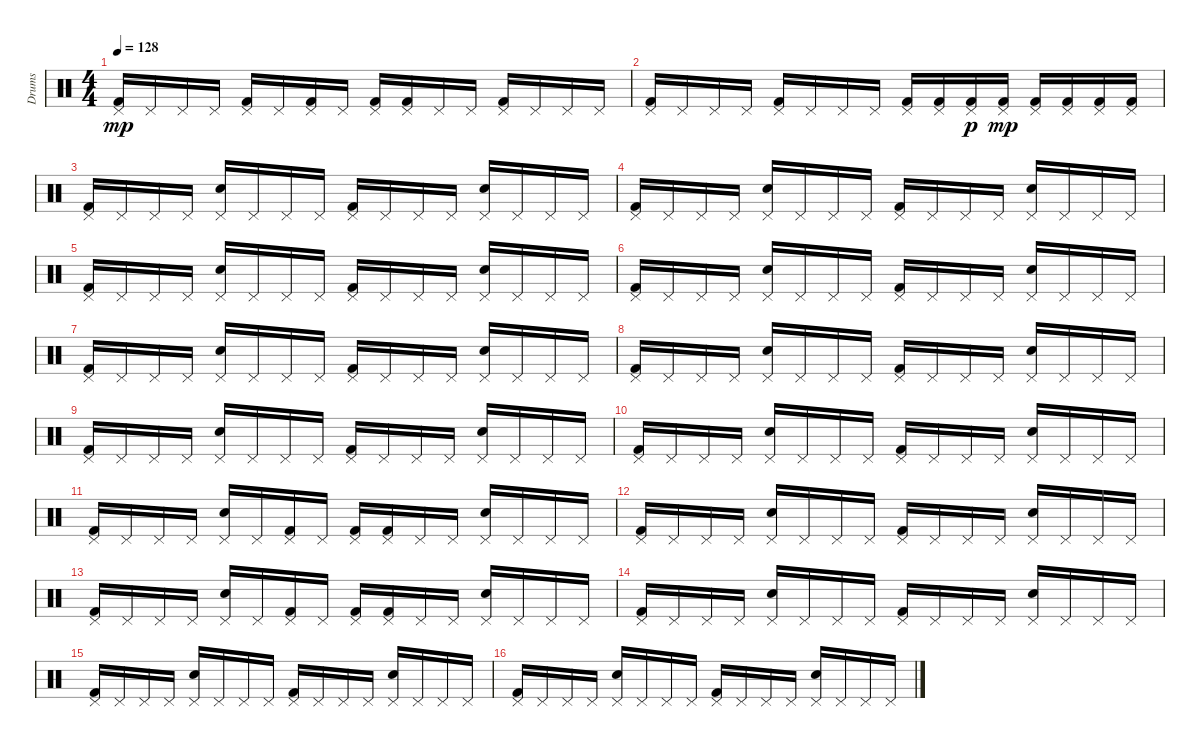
\track ("Drums" "Drums") {instrument percussion}
\staff {score}
\articulation defaults
\ts (4 4)
\tempo 128
\clef neutral
\ks c
("Pedal Hi-Hat (hit)" "Kick (hit) 2").16{dy mp} "Pedal Hi-Hat (hit)".16 "Pedal Hi-Hat (hit)".16 "Pedal Hi-Hat (hit)".16 ("Kick (hit) 2" "Pedal Hi-Hat (hit)").16 "Pedal Hi-Hat (hit)".16 ("Pedal Hi-Hat (hit)" "Kick (hit) 2").16 "Pedal Hi-Hat (hit)".16 ("Kick (hit) 2" "Pedal Hi-Hat (hit)").16 ("Kick (hit) 2" "Pedal Hi-Hat (hit)").16 "Pedal Hi-Hat (hit)".16 "Pedal Hi-Hat (hit)".16 ("Pedal Hi-Hat (hit)" "Kick (hit) 2").16 "Pedal Hi-Hat (hit)".16 "Pedal Hi-Hat (hit)".16 "Pedal Hi-Hat (hit)".16 |
("Kick (hit) 2" "Pedal Hi-Hat (hit)").16 "Pedal Hi-Hat (hit)".16 "Pedal Hi-Hat (hit)".16 "Pedal Hi-Hat (hit)".16 ("Kick (hit) 2" "Pedal Hi-Hat (hit)").16 "Pedal Hi-Hat (hit)".16 "Pedal Hi-Hat (hit)".16 "Pedal Hi-Hat (hit)".16 ("Pedal Hi-Hat (hit)" "Kick (hit) 2").16 ("Kick (hit) 2" "Pedal Hi-Hat (hit)").16 ("Pedal Hi-Hat (hit)" "Kick (hit) 2").16{dy p} ("Kick (hit) 2" "Pedal Hi-Hat (hit)").16{dy mp} ("Kick (hit) 2" "Pedal Hi-Hat (hit)").16 ("Kick (hit) 2" "Pedal Hi-Hat (hit)").16 ("Pedal Hi-Hat (hit)" "Kick (hit) 2").16 ("Kick (hit) 2" "Pedal Hi-Hat (hit)").16 |
("Kick (hit) 2" "Pedal Hi-Hat (hit)").16{volume 14} "Pedal Hi-Hat (hit)".16 "Pedal Hi-Hat (hit)".16 "Pedal Hi-Hat (hit)".16 ("Pedal Hi-Hat (hit)" "Electric Snare (hit)").16 "Pedal Hi-Hat (hit)".16 "Pedal Hi-Hat (hit)".16 "Pedal Hi-Hat (hit)".16 ("Pedal Hi-Hat (hit)" "Kick (hit) 2").16 "Pedal Hi-Hat (hit)".16 "Pedal Hi-Hat (hit)".16 "Pedal Hi-Hat (hit)".16 ("Electric Snare (hit)" "Pedal Hi-Hat (hit)").16 "Pedal Hi-Hat (hit)".16 "Pedal Hi-Hat (hit)".16 "Pedal Hi-Hat (hit)".16 |
("Pedal Hi-Hat (hit)" "Kick (hit) 2").16 "Pedal Hi-Hat (hit)".16 "Pedal Hi-Hat (hit)".16 "Pedal Hi-Hat (hit)".16 ("Pedal Hi-Hat (hit)" "Electric Snare (hit)").16 "Pedal Hi-Hat (hit)".16 "Pedal Hi-Hat (hit)".16 "Pedal Hi-Hat (hit)".16 ("Pedal Hi-Hat (hit)" "Kick (hit) 2").16 "Pedal Hi-Hat (hit)".16 "Pedal Hi-Hat (hit)".16 "Pedal Hi-Hat (hit)".16 ("Electric Snare (hit)" "Pedal Hi-Hat (hit)").16 "Pedal Hi-Hat (hit)".16 "Pedal Hi-Hat (hit)".16 "Pedal Hi-Hat (hit)".16 |
("Kick (hit) 2" "Pedal Hi-Hat (hit)").16 "Pedal Hi-Hat (hit)".16 "Pedal Hi-Hat (hit)".16 "Pedal Hi-Hat (hit)".16 ("Electric Snare (hit)" "Pedal Hi-Hat (hit)").16 "Pedal Hi-Hat (hit)".16 "Pedal Hi-Hat (hit)".16 "Pedal Hi-Hat (hit)".16 ("Pedal Hi-Hat (hit)" "Kick (hit) 2").16 "Pedal Hi-Hat (hit)".16 "Pedal Hi-Hat (hit)".16 "Pedal Hi-Hat (hit)".16 ("Electric Snare (hit)" "Pedal Hi-Hat (hit)").16 "Pedal Hi-Hat (hit)".16 "Pedal Hi-Hat (hit)".16 "Pedal Hi-Hat (hit)".16 |
("Pedal Hi-Hat (hit)" "Kick (hit) 2").16 "Pedal Hi-Hat (hit)".16 "Pedal Hi-Hat (hit)".16 "Pedal Hi-Hat (hit)".16 ("Electric Snare (hit)" "Pedal Hi-Hat (hit)").16 "Pedal Hi-Hat (hit)".16 "Pedal Hi-Hat (hit)".16 "Pedal Hi-Hat (hit)".16 ("Kick (hit) 2" "Pedal Hi-Hat (hit)").16 "Pedal Hi-Hat (hit)".16 "Pedal Hi-Hat (hit)".16 "Pedal Hi-Hat (hit)".16 ("Pedal Hi-Hat (hit)" "Electric Snare (hit)").16 "Pedal Hi-Hat (hit)".16 "Pedal Hi-Hat (hit)".16 "Pedal Hi-Hat (hit)".16 |
("Pedal Hi-Hat (hit)" "Kick (hit) 2").16 "Pedal Hi-Hat (hit)".16 "Pedal Hi-Hat (hit)".16 "Pedal Hi-Hat (hit)".16 ("Electric Snare (hit)" "Pedal Hi-Hat (hit)").16 "Pedal Hi-Hat (hit)".16 "Pedal Hi-Hat (hit)".16 "Pedal Hi-Hat (hit)".16 ("Kick (hit) 2" "Pedal Hi-Hat (hit)").16 "Pedal Hi-Hat (hit)".16 "Pedal Hi-Hat (hit)".16 "Pedal Hi-Hat (hit)".16 ("Electric Snare (hit)" "Pedal Hi-Hat (hit)").16 "Pedal Hi-Hat (hit)".16 "Pedal Hi-Hat (hit)".16 "Pedal Hi-Hat (hit)".16 |
("Pedal Hi-Hat (hit)" "Kick (hit) 2").16 "Pedal Hi-Hat (hit)".16 "Pedal Hi-Hat (hit)".16 "Pedal Hi-Hat (hit)".16 ("Electric Snare (hit)" "Pedal Hi-Hat (hit)").16 "Pedal Hi-Hat (hit)".16 "Pedal Hi-Hat (hit)".16 "Pedal Hi-Hat (hit)".16 ("Kick (hit) 2" "Pedal Hi-Hat (hit)").16 "Pedal Hi-Hat (hit)".16 "Pedal Hi-Hat (hit)".16 "Pedal Hi-Hat (hit)".16 ("Electric Snare (hit)" "Pedal Hi-Hat (hit)").16 "Pedal Hi-Hat (hit)".16 "Pedal Hi-Hat (hit)".16 "Pedal Hi-Hat (hit)".16 |
("Pedal Hi-Hat (hit)" "Kick (hit) 2").16 "Pedal Hi-Hat (hit)".16 "Pedal Hi-Hat (hit)".16 "Pedal Hi-Hat (hit)".16 ("Electric Snare (hit)" "Pedal Hi-Hat (hit)").16 "Pedal Hi-Hat (hit)".16 "Pedal Hi-Hat (hit)".16 "Pedal Hi-Hat (hit)".16 ("Pedal Hi-Hat (hit)" "Kick (hit) 2").16 "Pedal Hi-Hat (hit)".16 "Pedal Hi-Hat (hit)".16 "Pedal Hi-Hat (hit)".16 ("Pedal Hi-Hat (hit)" "Electric Snare (hit)").16 "Pedal Hi-Hat (hit)".16 "Pedal Hi-Hat (hit)".16 "Pedal Hi-Hat (hit)".16 |
("Pedal Hi-Hat (hit)" "Kick (hit) 2").16 "Pedal Hi-Hat (hit)".16 "Pedal Hi-Hat (hit)".16 "Pedal Hi-Hat (hit)".16 ("Pedal Hi-Hat (hit)" "Electric Snare (hit)").16 "Pedal Hi-Hat (hit)".16 "Pedal Hi-Hat (hit)".16 "Pedal Hi-Hat (hit)".16 ("Kick (hit) 2" "Pedal Hi-Hat (hit)").16 "Pedal Hi-Hat (hit)".16 "Pedal Hi-Hat (hit)".16 "Pedal Hi-Hat (hit)".16 ("Pedal Hi-Hat (hit)" "Electric Snare (hit)").16 "Pedal Hi-Hat (hit)".16 "Pedal Hi-Hat (hit)".16 "Pedal Hi-Hat (hit)".16 |
("Pedal Hi-Hat (hit)" "Kick (hit) 2").16 "Pedal Hi-Hat (hit)".16 "Pedal Hi-Hat (hit)".16 "Pedal Hi-Hat (hit)".16 ("Electric Snare (hit)" "Pedal Hi-Hat (hit)").16 "Pedal Hi-Hat (hit)".16 ("Pedal Hi-Hat (hit)" "Kick (hit) 2").16 "Pedal Hi-Hat (hit)".16 ("Kick (hit) 2" "Pedal Hi-Hat (hit)").16 ("Pedal Hi-Hat (hit)" "Kick (hit) 2").16 "Pedal Hi-Hat (hit)".16 "Pedal Hi-Hat (hit)".16 ("Pedal Hi-Hat (hit)" "Electric Snare (hit)").16 "Pedal Hi-Hat (hit)".16 "Pedal Hi-Hat (hit)".16 "Pedal Hi-Hat (hit)".16 |
("Pedal Hi-Hat (hit)" "Kick (hit) 2").16 "Pedal Hi-Hat (hit)".16 "Pedal Hi-Hat (hit)".16 "Pedal Hi-Hat (hit)".16 ("Pedal Hi-Hat (hit)" "Electric Snare (hit)").16 "Pedal Hi-Hat (hit)".16 "Pedal Hi-Hat (hit)".16 "Pedal Hi-Hat (hit)".16 ("Pedal Hi-Hat (hit)" "Kick (hit) 2").16 "Pedal Hi-Hat (hit)".16 "Pedal Hi-Hat (hit)".16 "Pedal Hi-Hat (hit)".16 ("Pedal Hi-Hat (hit)" "Electric Snare (hit)").16 "Pedal Hi-Hat (hit)".16 "Pedal Hi-Hat (hit)".16 "Pedal Hi-Hat (hit)".16 |
("Pedal Hi-Hat (hit)" "Kick (hit) 2").16 "Pedal Hi-Hat (hit)".16 "Pedal Hi-Hat (hit)".16 "Pedal Hi-Hat (hit)".16 ("Pedal Hi-Hat (hit)" "Electric Snare (hit)").16 "Pedal Hi-Hat (hit)".16 ("Pedal Hi-Hat (hit)" "Kick (hit) 2").16 "Pedal Hi-Hat (hit)".16 ("Kick (hit) 2" "Pedal Hi-Hat (hit)").16 ("Pedal Hi-Hat (hit)" "Kick (hit) 2").16 "Pedal Hi-Hat (hit)".16 "Pedal Hi-Hat (hit)".16 ("Pedal Hi-Hat (hit)" "Electric Snare (hit)").16 "Pedal Hi-Hat (hit)".16 "Pedal Hi-Hat (hit)".16 "Pedal Hi-Hat (hit)".16 |
("Kick (hit) 2" "Pedal Hi-Hat (hit)").16 "Pedal Hi-Hat (hit)".16 "Pedal Hi-Hat (hit)".16 "Pedal Hi-Hat (hit)".16 ("Electric Snare (hit)" "Pedal Hi-Hat (hit)").16 "Pedal Hi-Hat (hit)".16 "Pedal Hi-Hat (hit)".16 "Pedal Hi-Hat (hit)".16 ("Pedal Hi-Hat (hit)" "Kick (hit) 2").16 "Pedal Hi-Hat (hit)".16 "Pedal Hi-Hat (hit)".16 "Pedal Hi-Hat (hit)".16 ("Electric Snare (hit)" "Pedal Hi-Hat (hit)").16 "Pedal Hi-Hat (hit)".16 "Pedal Hi-Hat (hit)".16 "Pedal Hi-Hat (hit)".16 |
("Pedal Hi-Hat (hit)" "Kick (hit) 2").16 "Pedal Hi-Hat (hit)".16 "Pedal Hi-Hat (hit)".16 "Pedal Hi-Hat (hit)".16 ("Pedal Hi-Hat (hit)" "Electric Snare (hit)").16 "Pedal Hi-Hat (hit)".16 "Pedal Hi-Hat (hit)".16 "Pedal Hi-Hat (hit)".16 ("Kick (hit) 2" "Pedal Hi-Hat (hit)").16 "Pedal Hi-Hat (hit)".16 "Pedal Hi-Hat (hit)".16 "Pedal Hi-Hat (hit)".16 ("Electric Snare (hit)" "Pedal Hi-Hat (hit)").16 "Pedal Hi-Hat (hit)".16 "Pedal Hi-Hat (hit)".16 "Pedal Hi-Hat (hit)".16 |
("Pedal Hi-Hat (hit)" "Kick (hit) 2").16 "Pedal Hi-Hat (hit)".16 "Pedal Hi-Hat (hit)".16 "Pedal Hi-Hat (hit)".16 ("Electric Snare (hit)" "Pedal Hi-Hat (hit)").16 "Pedal Hi-Hat (hit)".16 "Pedal Hi-Hat (hit)".16 "Pedal Hi-Hat (hit)".16 ("Pedal Hi-Hat (hit)" "Kick (hit) 2").16 "Pedal Hi-Hat (hit)".16 "Pedal Hi-Hat (hit)".16 "Pedal Hi-Hat (hit)".16 ("Pedal Hi-Hat (hit)" "Electric Snare (hit)").16 "Pedal Hi-Hat (hit)".16 "Pedal Hi-Hat (hit)".16 "Pedal Hi-Hat (hit)".16
